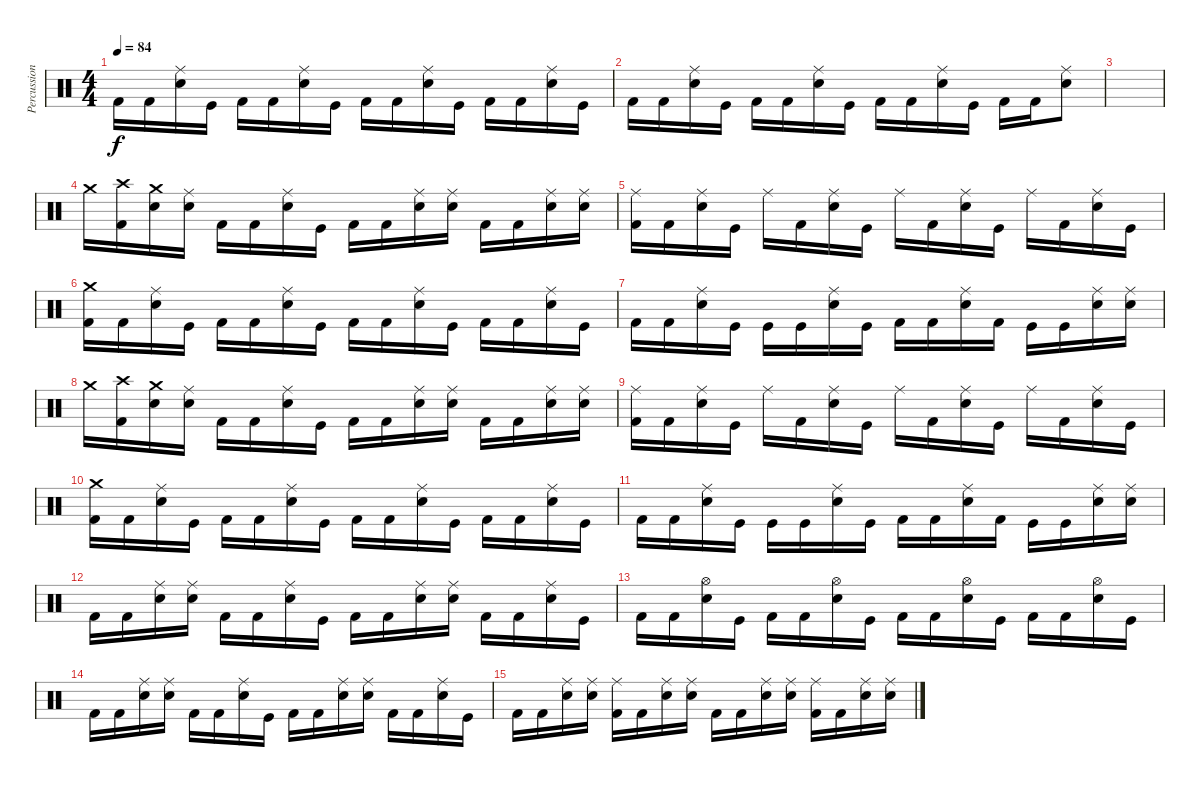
\track ("Percussion" "Percussion") {instrument percussion}
\staff {score}
\articulation defaults
\ts (4 4)
\tempo 84
\clef neutral
\ks c "Kick (hit) 2".16{dy f} "Kick (hit) 2".16
("Snare (hit) 2" "Ride (middle)").16 "Kick (hit)".16 "Kick (hit) 2".16 "Kick (hit) 2".16 ("Snare (hit) 2" "Ride (middle)").16 "Kick (hit)".16 "Kick (hit) 2".16 "Kick (hit) 2".16 ("Snare (hit) 2" "Ride (middle)").16 "Kick (hit)".16 "Kick (hit) 2".16 "Kick (hit) 2".16 ("Snare (hit) 2" "Ride (middle)").16 "Kick (hit)".16 |
"Kick (hit) 2".16 "Kick (hit) 2".16 ("Snare (hit) 2" "Ride (middle)").16 "Kick (hit)".16 "Kick (hit) 2".16 "Kick (hit) 2".16 ("Snare (hit) 2" "Ride (middle)").16 "Kick (hit)".16 "Kick (hit) 2".16 "Kick (hit) 2".16 ("Snare (hit) 2" "Ride (middle)").16 "Kick (hit)".16 "Kick (hit) 2".16 "Kick (hit) 2".16 ("Snare (hit) 2" "Ride (middle)").8 |
|
"Crash medium (hit)".16 ("Kick (hit) 2" "Crash high (hit)").16 ("Snare (hit) 2" "Crash medium (hit)").16 ("Snare (hit) 2" "Ride (middle)").16 "Kick (hit) 2".16 "Kick (hit) 2".16 ("Snare (hit) 2" "Ride (middle)").16 "Kick (hit)".16 "Kick (hit) 2".16 "Kick (hit) 2".16 ("Snare (hit) 2" "Ride (middle)").16 ("Snare (hit) 2" "Ride (middle)").16 "Kick (hit) 2".16 "Kick (hit) 2".16 ("Snare (hit) 2" "Ride (middle)").16 ("Snare (hit) 2" "Ride (middle)").16 |
("Kick (hit) 2" "Ride (middle)").16 "Kick (hit) 2".16 ("Snare (hit) 2" "Ride (middle)").16 "Kick (hit)".16 "Ride (middle)".16 "Kick (hit) 2".16 ("Snare (hit) 2" "Ride (middle)").16 "Kick (hit)".16 "Ride (middle)".16 "Kick (hit) 2".16 ("Snare (hit) 2" "Ride (middle)").16 "Kick (hit)".16 "Ride (middle)".16 "Kick (hit) 2".16 ("Snare (hit) 2" "Ride (middle)").16 "Kick (hit)".16 |
("Kick (hit) 2" "Crash medium (hit)").16 "Kick (hit) 2".16 ("Snare (hit) 2" "Ride (middle)").16 "Kick (hit)".16 "Kick (hit) 2".16 "Kick (hit) 2".16 ("Snare (hit) 2" "Ride (middle)").16 "Kick (hit)".16 "Kick (hit) 2".16 "Kick (hit) 2".16 ("Snare (hit) 2" "Ride (middle)").16 "Kick (hit)".16 "Kick (hit) 2".16 "Kick (hit) 2".16 ("Snare (hit) 2" "Ride (middle)").16 "Kick (hit)".16 |
"Kick (hit) 2".16 "Kick (hit) 2".16 ("Snare (hit) 2" "Ride (middle)").16 "Kick (hit)".16 "Kick (hit)".16 "Kick (hit)".16 ("Snare (hit) 2" "Ride (middle)").16 "Kick (hit)".16 "Kick (hit) 2".16 "Kick (hit) 2".16 ("Snare (hit) 2" "Ride (middle)").16 "Kick (hit) 2".16 "Kick (hit)".16 "Kick (hit)".16 ("Snare (hit) 2" "Ride (middle)").16 ("Snare (hit) 2" "Ride (middle)").16 |
"Crash medium (hit)".16 ("Kick (hit) 2" "Crash high (hit)").16 ("Snare (hit) 2" "Crash medium (hit)").16 ("Snare (hit) 2" "Ride (middle)").16 "Kick (hit) 2".16 "Kick (hit) 2".16 ("Snare (hit) 2" "Ride (middle)").16 "Kick (hit)".16 "Kick (hit) 2".16 "Kick (hit) 2".16 ("Snare (hit) 2" "Ride (middle)").16 ("Snare (hit) 2" "Ride (middle)").16 "Kick (hit) 2".16 "Kick (hit) 2".16 ("Snare (hit) 2" "Ride (middle)").16 ("Snare (hit) 2" "Ride (middle)").16 |
("Kick (hit) 2" "Ride (middle)").16 "Kick (hit) 2".16 ("Snare (hit) 2" "Ride (middle)").16 "Kick (hit)".16 "Ride (middle)".16 "Kick (hit) 2".16 ("Snare (hit) 2" "Ride (middle)").16 "Kick (hit)".16 "Ride (middle)".16 "Kick (hit) 2".16 ("Snare (hit) 2" "Ride (middle)").16 "Kick (hit)".16 "Ride (middle)".16 "Kick (hit) 2".16 ("Snare (hit) 2" "Ride (middle)").16 "Kick (hit)".16 |
("Kick (hit) 2" "Crash medium (hit)").16 "Kick (hit) 2".16 ("Snare (hit) 2" "Ride (middle)").16 "Kick (hit)".16 "Kick (hit) 2".16 "Kick (hit) 2".16 ("Snare (hit) 2" "Ride (middle)").16 "Kick (hit)".16 "Kick (hit) 2".16 "Kick (hit) 2".16 ("Snare (hit) 2" "Ride (middle)").16 "Kick (hit)".16 "Kick (hit) 2".16 "Kick (hit) 2".16 ("Snare (hit) 2" "Ride (middle)").16 "Kick (hit)".16 |
"Kick (hit) 2".16 "Kick (hit) 2".16 ("Snare (hit) 2" "Ride (middle)").16 "Kick (hit)".16 "Kick (hit)".16 "Kick (hit)".16 ("Snare (hit) 2" "Ride (middle)").16 "Kick (hit)".16 "Kick (hit) 2".16 "Kick (hit) 2".16 ("Snare (hit) 2" "Ride (middle)").16 "Kick (hit) 2".16 "Kick (hit)".16 "Kick (hit)".16 ("Snare (hit) 2" "Ride (middle)").16 ("Snare (hit) 2" "Ride (middle)").16 |
"Kick (hit) 2".16 "Kick (hit) 2".16 ("Ride (middle)" "Snare (hit) 2").16 ("Ride (middle)" "Snare (hit) 2").16 "Kick (hit) 2".16 "Kick (hit) 2".16 ("Ride (middle)" "Snare (hit) 2").16 "Kick (hit)".16 "Kick (hit) 2".16 "Kick (hit) 2".16 ("Ride (middle)" "Snare (hit) 2").16 ("Ride (middle)" "Snare (hit) 2").16 "Kick (hit) 2".16 "Kick (hit) 2".16 ("Ride (middle)" "Snare (hit) 2").16 "Kick (hit)".16 |
"Kick (hit) 2".16 "Kick (hit) 2".16 ("Hi-Hat (open)" "Snare (hit) 2").16 "Kick (hit)".16 "Kick (hit) 2".16 "Kick (hit) 2".16 ("Hi-Hat (open)" "Snare (hit) 2").16 "Kick (hit)".16 "Kick (hit) 2".16 "Kick (hit) 2".16 ("Hi-Hat (open)" "Snare (hit) 2").16 "Kick (hit)".16 "Kick (hit) 2".16 "Kick (hit) 2".16 ("Hi-Hat (open)" "Snare (hit) 2").16 "Kick (hit)".16 |
"Kick (hit) 2".16 "Kick (hit) 2".16 ("Ride (middle)" "Snare (hit) 2").16 ("Ride (middle)" "Snare (hit) 2").16 "Kick (hit) 2".16 "Kick (hit) 2".16 ("Ride (middle)" "Snare (hit) 2").16 "Kick (hit)".16 "Kick (hit) 2".16 "Kick (hit) 2".16 ("Ride (middle)" "Snare (hit) 2").16 ("Ride (middle)" "Snare (hit) 2").16 "Kick (hit) 2".16 "Kick (hit) 2".16 ("Ride (middle)" "Snare (hit) 2").16 "Kick (hit)".16 |
"Kick (hit) 2".16 "Kick (hit) 2".16 ("Ride (middle)" "Snare (hit) 2").16 ("Ride (middle)" "Snare (hit) 2").16 ("Ride (middle)" "Kick (hit) 2").16 "Kick (hit) 2".16 ("Ride (middle)" "Snare (hit) 2").16 ("Ride (middle)" "Snare (hit) 2").16 "Kick (hit) 2".16 "Kick (hit) 2".16 ("Ride (middle)" "Snare (hit) 2").16 ("Ride (middle)" "Snare (hit) 2").16 ("Ride (middle)" "Kick (hit) 2").16 "Kick (hit) 2".16 ("Ride (middle)" "Snare (hit) 2").16 ("Ride (middle)" "Snare (hit) 2").16
